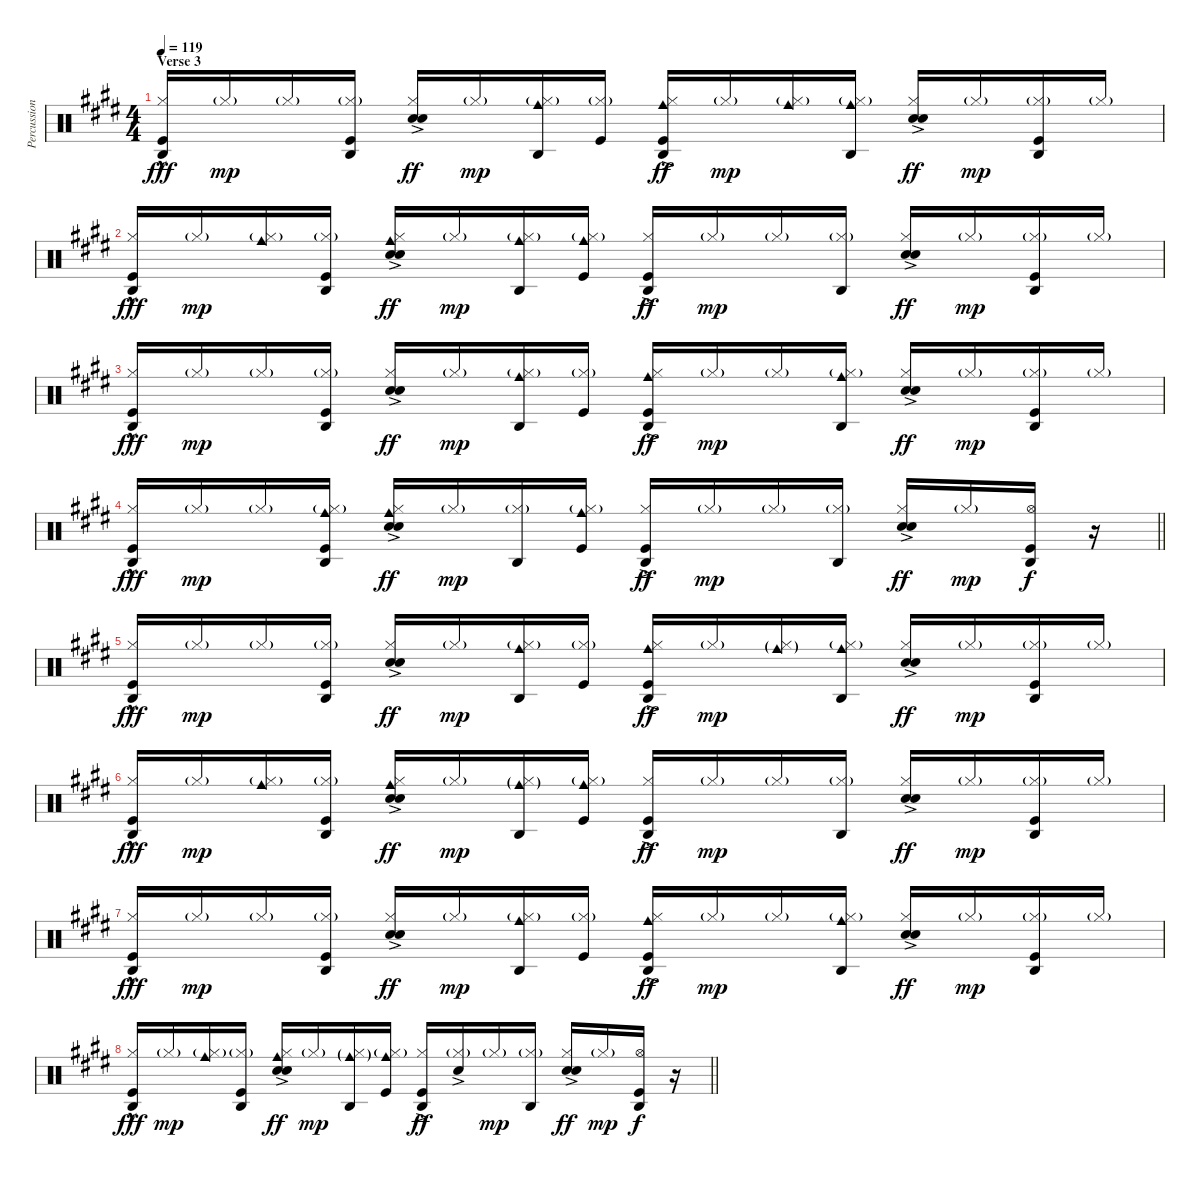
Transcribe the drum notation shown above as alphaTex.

\track ("Percussion" "Percussion") {instrument percussion}
\staff {score}
\articulation defaults
\ts (4 4)
\section ("" "Verse 3")
\tempo 119
\clef neutral
\ks e
("Agogo high (hit)" "Hi-Hat (closed)" "Kick (hit)"{hac}).16{dy fff} "Hi-Hat (closed)"{g}.16{dy mp} "Hi-Hat (closed)"{g}.16 ("Agogo high (hit)" "Hi-Hat (closed)"{g} "Kick (hit)").16 ("Hi-Hat (closed)" "Hand Clap (hit)"{ac} "Snare (hit) 2"{ac}).16{dy ff} "Hi-Hat (closed)"{g}.16{dy mp} ("Agogo high (hit)" "Cowbell medium (hit)" "Hi-Hat (closed)"{g}).16 ("Hi-Hat (closed)"{g} "Kick (hit)").16 ("Agogo high (hit)" "Cowbell medium (hit)" "Hi-Hat (closed)" "Kick (hit)"{ac}).16{dy ff} "Hi-Hat (closed)"{g}.16{dy mp} ("Cowbell medium (hit)" "Hi-Hat (closed)"{g}).16 ("Agogo high (hit)" "Cowbell medium (hit)" "Hi-Hat (closed)"{g}).16 ("Hi-Hat (closed)" "Hand Clap (hit)"{ac} "Snare (hit) 2"{ac}).16{dy ff} "Hi-Hat (closed)"{g}.16{dy mp} ("Agogo high (hit)" "Hi-Hat (closed)"{g} "Kick (hit)").16 "Hi-Hat (closed)"{g}.16 |
("Agogo high (hit)" "Hi-Hat (closed)" "Kick (hit)"{hac}).16{dy fff} "Hi-Hat (closed)"{g}.16{dy mp} ("Cowbell medium (hit)" "Hi-Hat (closed)"{g}).16 ("Agogo high (hit)" "Hi-Hat (closed)"{g} "Kick (hit)").16 ("Cowbell medium (hit)" "Hi-Hat (closed)" "Hand Clap (hit)"{ac} "Snare (hit) 2"{ac}).16{dy ff} "Hi-Hat (closed)"{g}.16{dy mp} ("Agogo high (hit)" "Cowbell medium (hit)" "Hi-Hat (closed)"{g}).16 ("Cowbell medium (hit)" "Hi-Hat (closed)"{g} "Kick (hit)").16 ("Agogo high (hit)" "Hi-Hat (closed)" "Kick (hit)"{ac}).16{dy ff} "Hi-Hat (closed)"{g}.16{dy mp} "Hi-Hat (closed)"{g}.16 ("Agogo high (hit)" "Hi-Hat (closed)"{g}).16 ("Hi-Hat (closed)" "Hand Clap (hit)"{ac} "Snare (hit) 2"{ac}).16{dy ff} "Hi-Hat (closed)"{g}.16{dy mp} ("Agogo high (hit)" "Hi-Hat (closed)"{g} "Kick (hit)").16 "Hi-Hat (closed)"{g}.16 |
("Agogo high (hit)" "Hi-Hat (closed)" "Kick (hit)"{hac}).16{dy fff} "Hi-Hat (closed)"{g}.16{dy mp} "Hi-Hat (closed)"{g}.16 ("Agogo high (hit)" "Hi-Hat (closed)"{g} "Kick (hit)").16 ("Hi-Hat (closed)" "Hand Clap (hit)"{ac} "Snare (hit) 2"{ac}).16{dy ff} "Hi-Hat (closed)"{g}.16{dy mp} ("Agogo high (hit)" "Cowbell medium (hit)" "Hi-Hat (closed)"{g}).16 ("Hi-Hat (closed)"{g} "Kick (hit)").16 ("Agogo high (hit)" "Cowbell medium (hit)" "Hi-Hat (closed)" "Kick (hit)"{ac}).16{dy ff} "Hi-Hat (closed)"{g}.16{dy mp} "Hi-Hat (closed)"{g}.16 ("Agogo high (hit)" "Cowbell medium (hit)" "Hi-Hat (closed)"{g}).16 ("Hi-Hat (closed)" "Hand Clap (hit)"{ac} "Snare (hit) 2"{ac}).16{dy ff} "Hi-Hat (closed)"{g}.16{dy mp} ("Agogo high (hit)" "Hi-Hat (closed)"{g} "Kick (hit)").16 "Hi-Hat (closed)"{g}.16 |
\barLineRight lightlight
("Agogo high (hit)" "Hi-Hat (closed)" "Kick (hit)"{hac}).16{dy fff} "Hi-Hat (closed)"{g}.16{dy mp} "Hi-Hat (closed)"{g}.16 ("Agogo high (hit)" "Cowbell medium (hit)" "Hi-Hat (closed)"{g} "Kick (hit)").16 ("Cowbell medium (hit)" "Hi-Hat (closed)" "Hand Clap (hit)"{ac} "Snare (hit) 2"{ac}).16{dy ff} "Hi-Hat (closed)"{g}.16{dy mp} ("Agogo high (hit)" "Hi-Hat (closed)"{g}).16 ("Cowbell medium (hit)" "Hi-Hat (closed)"{g} "Kick (hit)").16 ("Agogo high (hit)" "Hi-Hat (closed)" "Kick (hit)"{ac}).16{dy ff} "Hi-Hat (closed)"{g}.16{dy mp} "Hi-Hat (closed)"{g}.16 ("Agogo high (hit)" "Hi-Hat (closed)"{g}).16 ("Hi-Hat (closed)" "Hand Clap (hit)"{ac} "Snare (hit) 2"{ac}).16{dy ff} "Hi-Hat (closed)"{g}.16{dy mp} ("Agogo high (hit)" "Hi-Hat (open)" "Kick (hit)").16{dy f} r.16 |
("Agogo high (hit)" "Hi-Hat (closed)" "Kick (hit)"{hac}).16{dy fff} "Hi-Hat (closed)"{g}.16{dy mp} "Hi-Hat (closed)"{g}.16 ("Agogo high (hit)" "Hi-Hat (closed)"{g} "Kick (hit)").16 ("Hi-Hat (closed)" "Hand Clap (hit)"{ac} "Snare (hit) 2"{ac}).16{dy ff} "Hi-Hat (closed)"{g}.16{dy mp} ("Agogo high (hit)" "Cowbell medium (hit)" "Hi-Hat (closed)"{g}).16 ("Hi-Hat (closed)"{g} "Kick (hit)").16 ("Agogo high (hit)" "Cowbell medium (hit)" "Hi-Hat (closed)" "Kick (hit)"{ac}).16{dy ff} "Hi-Hat (closed)"{g}.16{dy mp} ("Cowbell medium (hit)"{g} "Hi-Hat (closed)"{g}).16 ("Agogo high (hit)" "Cowbell medium (hit)" "Hi-Hat (closed)"{g}).16 ("Hi-Hat (closed)" "Hand Clap (hit)"{ac} "Snare (hit) 2"{ac}).16{dy ff} "Hi-Hat (closed)"{g}.16{dy mp} ("Agogo high (hit)" "Hi-Hat (closed)"{g} "Kick (hit)").16 "Hi-Hat (closed)"{g}.16 |
("Agogo high (hit)" "Hi-Hat (closed)" "Kick (hit)"{hac}).16{dy fff} "Hi-Hat (closed)"{g}.16{dy mp} ("Cowbell medium (hit)" "Hi-Hat (closed)"{g}).16 ("Agogo high (hit)" "Hi-Hat (closed)"{g} "Kick (hit)").16 ("Cowbell medium (hit)" "Hi-Hat (closed)" "Hand Clap (hit)"{ac} "Snare (hit) 2"{ac}).16{dy ff} "Hi-Hat (closed)"{g}.16{dy mp} ("Agogo high (hit)" "Cowbell medium (hit)"{g} "Hi-Hat (closed)"{g}).16 ("Cowbell medium (hit)" "Hi-Hat (closed)"{g} "Kick (hit)").16 ("Agogo high (hit)" "Hi-Hat (closed)" "Kick (hit)"{ac}).16{dy ff} "Hi-Hat (closed)"{g}.16{dy mp} "Hi-Hat (closed)"{g}.16 ("Agogo high (hit)" "Hi-Hat (closed)"{g}).16 ("Hi-Hat (closed)" "Hand Clap (hit)"{ac} "Snare (hit) 2"{ac}).16{dy ff} "Hi-Hat (closed)"{g}.16{dy mp} ("Agogo high (hit)" "Hi-Hat (closed)"{g} "Kick (hit)").16 "Hi-Hat (closed)"{g}.16 |
("Agogo high (hit)" "Hi-Hat (closed)" "Kick (hit)"{hac}).16{dy fff} "Hi-Hat (closed)"{g}.16{dy mp} "Hi-Hat (closed)"{g}.16 ("Agogo high (hit)" "Hi-Hat (closed)"{g} "Kick (hit)").16 ("Hi-Hat (closed)" "Hand Clap (hit)"{ac} "Snare (hit) 2"{ac}).16{dy ff} "Hi-Hat (closed)"{g}.16{dy mp} ("Agogo high (hit)" "Cowbell medium (hit)" "Hi-Hat (closed)"{g}).16 ("Hi-Hat (closed)"{g} "Kick (hit)").16 ("Agogo high (hit)" "Cowbell medium (hit)" "Hi-Hat (closed)" "Kick (hit)"{ac}).16{dy ff} "Hi-Hat (closed)"{g}.16{dy mp} "Hi-Hat (closed)"{g}.16 ("Agogo high (hit)" "Cowbell medium (hit)" "Hi-Hat (closed)"{g}).16 ("Hi-Hat (closed)" "Hand Clap (hit)"{ac} "Snare (hit) 2"{ac}).16{dy ff} "Hi-Hat (closed)"{g}.16{dy mp} ("Agogo high (hit)" "Hi-Hat (closed)"{g} "Kick (hit)").16 "Hi-Hat (closed)"{g}.16 |
\barLineRight lightlight
("Agogo high (hit)" "Hi-Hat (closed)" "Kick (hit)"{hac}).16{dy fff} "Hi-Hat (closed)"{g}.16{dy mp} ("Cowbell medium (hit)" "Hi-Hat (closed)"{g}).16 ("Agogo high (hit)" "Hi-Hat (closed)"{g} "Kick (hit)").16 ("Cowbell medium (hit)" "Hi-Hat (closed)" "Hand Clap (hit)"{ac} "Snare (hit) 2"{ac}).16{dy ff} "Hi-Hat (closed)"{g}.16{dy mp} ("Agogo high (hit)" "Cowbell medium (hit)"{g} "Hi-Hat (closed)"{g}).16 ("Cowbell medium (hit)" "Hi-Hat (closed)"{g} "Kick (hit)").16 ("Agogo high (hit)" "Hi-Hat (closed)" "Kick (hit)"{ac}).16{dy ff} ("Hi-Hat (closed)"{g} "Hand Clap (hit)"{ac}).16 "Hi-Hat (closed)"{g}.16{dy mp} ("Agogo high (hit)" "Hi-Hat (closed)"{g}).16 ("Hi-Hat (closed)" "Hand Clap (hit)"{ac} "Snare (hit) 2"{ac}).16{dy ff} "Hi-Hat (closed)"{g}.16{dy mp} ("Agogo high (hit)" "Hi-Hat (open)" "Kick (hit)").16{dy f} r.16
